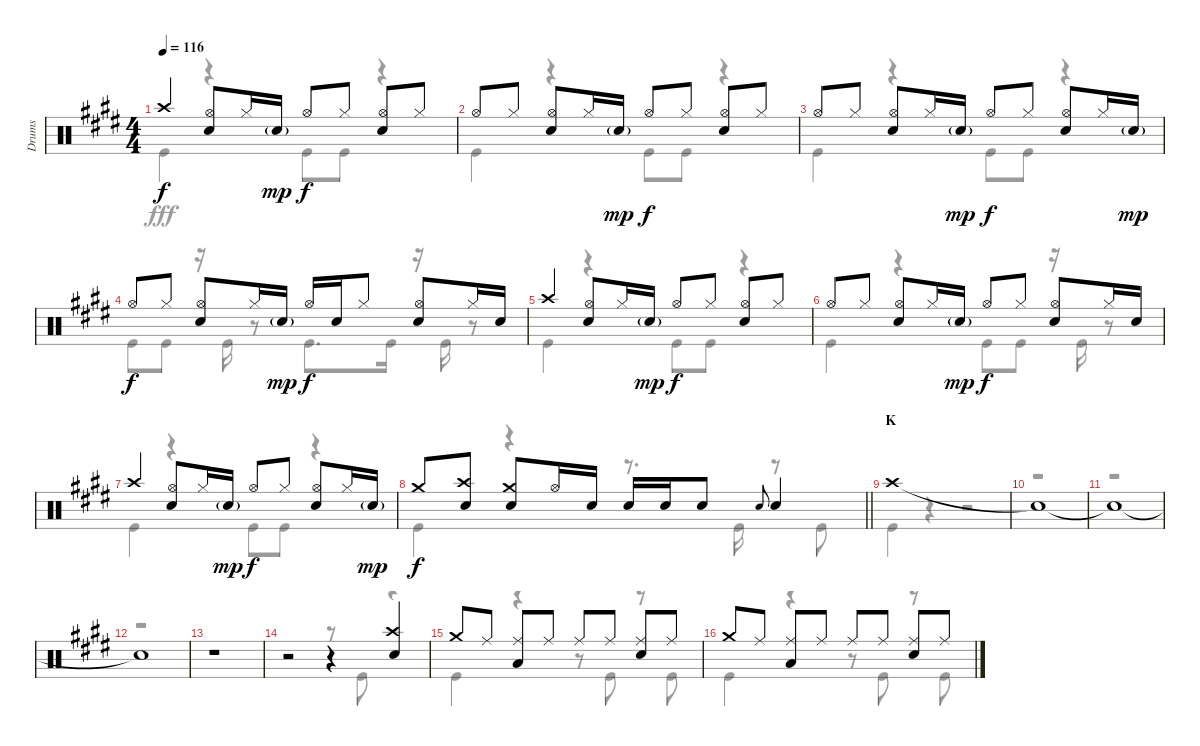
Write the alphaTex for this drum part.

\track ("Drums" "Drums") {instrument percussion}
\staff {score}
\articulation defaults
\voice
\ts (4 4)
\tempo 116
\clef neutral
\ks e "Crash high (hit)".4{dy f}
("Hi-Hat (open)" "Snare (hit) 2").8 "Hi-Hat (closed)".16 "Snare (hit) 2"{g}.16{dy mp} "Hi-Hat (open)".8{dy f} "Hi-Hat (closed)".8 ("Snare (hit) 2" "Hi-Hat (open)").8 "Hi-Hat (closed)".8 |
"Hi-Hat (open)".8 "Hi-Hat (closed)".8 ("Hi-Hat (open)" "Snare (hit) 2").8 "Hi-Hat (closed)".16 "Snare (hit) 2"{g}.16{dy mp} "Hi-Hat (open)".8{dy f} "Hi-Hat (closed)".8 ("Hi-Hat (open)" "Snare (hit) 2").8 "Hi-Hat (closed)".8 |
"Hi-Hat (open)".8 "Hi-Hat (closed)".8 ("Hi-Hat (open)" "Snare (hit) 2").8 "Hi-Hat (closed)".16 "Snare (hit) 2"{g}.16{dy mp} "Hi-Hat (open)".8{dy f} "Hi-Hat (closed)".8 ("Hi-Hat (open)" "Snare (hit) 2").8 "Hi-Hat (closed)".16 "Snare (hit) 2"{g}.16{dy mp} |
"Hi-Hat (open)".8{dy f} "Hi-Hat (closed)".8 ("Hi-Hat (open)" "Snare (hit) 2").8 "Hi-Hat (closed)".16 "Snare (hit) 2"{g}.16{dy mp} "Hi-Hat (open)".16{dy f} "Snare (hit) 2".16 "Hi-Hat (closed)".8 ("Hi-Hat (open)" "Snare (hit) 2").8 "Hi-Hat (closed)".16 "Snare (hit) 2".16 |
"Crash high (hit)".4 ("Hi-Hat (open)" "Snare (hit) 2").8 "Hi-Hat (closed)".16 "Snare (hit) 2"{g}.16{dy mp} "Hi-Hat (open)".8{dy f} "Hi-Hat (closed)".8 ("Snare (hit) 2" "Hi-Hat (open)").8 "Hi-Hat (closed)".8 |
"Hi-Hat (open)".8 "Hi-Hat (closed)".8 ("Hi-Hat (open)" "Snare (hit) 2").8 "Hi-Hat (closed)".16 "Snare (hit) 2"{g}.16{dy mp} "Hi-Hat (open)".8{dy f} "Hi-Hat (closed)".8 ("Hi-Hat (open)" "Snare (hit) 2").8 "Hi-Hat (closed)".16 "Snare (hit) 2".16 |
"Crash high (hit)".4 ("Hi-Hat (open)" "Snare (hit) 2").8 "Hi-Hat (closed)".16 "Snare (hit) 2"{g}.16{dy mp} "Hi-Hat (open)".8{dy f} "Hi-Hat (closed)".8 ("Hi-Hat (open)" "Snare (hit) 2").8 "Hi-Hat (closed)".16 "Snare (hit) 2"{g}.16{dy mp} |
\barLineRight lightlight "Crash medium (hit)".8{dy f}
("Crash high (hit)" "Snare (hit) 2").8 ("Crash medium (hit)" "Snare (hit) 2").8 "Hi-Hat (open)".16 "Snare (hit) 2".16 "Snare (hit) 2".16 "Snare (hit) 2".16 "Snare (hit) 2".8 "Snare (hit) 2".8{gr onbeat} "Snare (hit) 2".4 |
\section ("" "K")
"Crash high (hit)".1 |
"Snare (hit)"{t}.1 |
"Snare (hit)"{t}.1 |
"Snare (hit)"{t}.1 |
r.1 |
r.2 r.4 ("Crash high (hit)" "Snare (hit) 2").4 |
"Crash medium (hit)".8 "Ride (middle)".8 ("Ride (middle)" "Low Tom (hit)").8 "Ride (middle)".8 "Ride (middle)".8 "Ride (middle)".8 ("Ride (middle)" "Snare (hit) 2").8 "Ride (middle)".8 |
"Crash medium (hit)".8 "Ride (middle)".8 ("Ride (middle)" "Low Tom (hit)").8 "Ride (middle)".8 "Ride (middle)".8 "Ride (middle)".8 ("Ride (middle)" "Snare (hit) 2").8 "Ride (middle)".8
\voice
\clef neutral
\ottava regular
\simile none
\ks e "Kick (hit)".4{dy fff}
r.4 "Kick (hit)".8 "Kick (hit)".8 r.4 |
"Kick (hit)".4 r.4 "Kick (hit)".8 "Kick (hit)".8 r.4 |
"Kick (hit)".4 r.4 "Kick (hit)".8 "Kick (hit)".8 r.4 |
"Kick (hit)".8 "Kick (hit)".8 r.16 "Kick (hit)".16 r.8 "Kick (hit)".8{d} "Kick (hit)".16 r.16 "Kick (hit)".16 r.8 |
"Kick (hit)".4 r.4 "Kick (hit)".8 "Kick (hit)".8 r.4 |
"Kick (hit)".4 r.4 "Kick (hit)".8 "Kick (hit)".8 r.16 "Kick (hit)".16 r.8 |
"Kick (hit)".4 r.4 "Kick (hit)".8 "Kick (hit)".8 r.4 |
\barLineRight lightlight "Kick (hit)".4
r.4 r.8{d} "Kick (hit)".16 r.8 "Kick (hit)".8 |
"Kick (hit)".4 r.4 r.2 |
r.1 |
r.1 |
r.1 |
r.1 |
r.2 r.8 "Kick (hit)".8 r.4 |
"Kick (hit)".4 r.4 r.8 "Kick (hit)".8 r.8 "Kick (hit)".8 |
"Kick (hit)".4 r.4 r.8 "Kick (hit)".8 r.8 "Kick (hit)".8
